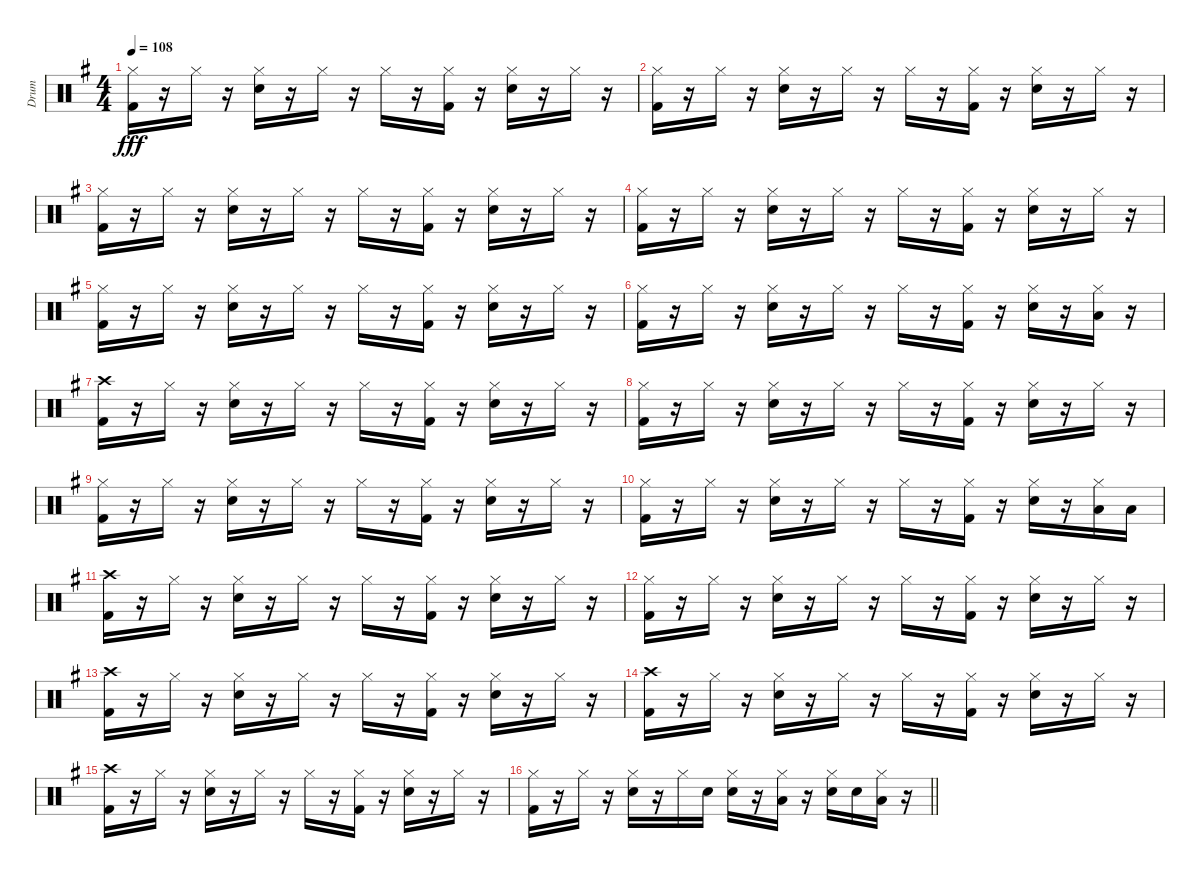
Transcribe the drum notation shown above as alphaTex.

\track ("Drum" "Drum") {instrument percussion}
\staff {score}
\articulation defaults
\ts (4 4)
\tempo 108
\clef neutral
\ks g
("Hi-Hat (closed)" "Kick (hit) 2").16{dy fff} r.16 "Hi-Hat (closed)".16 r.16 ("Hi-Hat (closed)" "Electric Snare (hit)").16 r.16 "Hi-Hat (closed)".16 r.16 "Hi-Hat (closed)".16 r.16 ("Hi-Hat (closed)" "Kick (hit) 2").16 r.16 ("Hi-Hat (closed)" "Electric Snare (hit)").16 r.16 "Hi-Hat (closed)".16 r.16 |
("Hi-Hat (closed)" "Kick (hit) 2").16 r.16 "Hi-Hat (closed)".16 r.16 ("Hi-Hat (closed)" "Electric Snare (hit)").16 r.16 "Hi-Hat (closed)".16 r.16 "Hi-Hat (closed)".16 r.16 ("Hi-Hat (closed)" "Kick (hit) 2").16 r.16 ("Hi-Hat (closed)" "Electric Snare (hit)").16 r.16 "Hi-Hat (closed)".16 r.16 |
("Hi-Hat (closed)" "Kick (hit) 2").16 r.16 "Hi-Hat (closed)".16 r.16 ("Hi-Hat (closed)" "Electric Snare (hit)").16 r.16 "Hi-Hat (closed)".16 r.16 "Hi-Hat (closed)".16 r.16 ("Hi-Hat (closed)" "Kick (hit) 2").16 r.16 ("Hi-Hat (closed)" "Electric Snare (hit)").16 r.16 "Hi-Hat (closed)".16 r.16 |
("Hi-Hat (closed)" "Kick (hit) 2").16 r.16 "Hi-Hat (closed)".16 r.16 ("Hi-Hat (closed)" "Electric Snare (hit)").16 r.16 "Hi-Hat (closed)".16 r.16 "Hi-Hat (closed)".16 r.16 ("Hi-Hat (closed)" "Kick (hit) 2").16 r.16 ("Hi-Hat (closed)" "Electric Snare (hit)").16 r.16 "Hi-Hat (closed)".16 r.16 |
("Hi-Hat (closed)" "Kick (hit) 2").16 r.16 "Hi-Hat (closed)".16 r.16 ("Hi-Hat (closed)" "Electric Snare (hit)").16 r.16 "Hi-Hat (closed)".16 r.16 "Hi-Hat (closed)".16 r.16 ("Hi-Hat (closed)" "Kick (hit) 2").16 r.16 ("Hi-Hat (closed)" "Electric Snare (hit)").16 r.16 "Hi-Hat (closed)".16 r.16 |
("Hi-Hat (closed)" "Kick (hit) 2").16 r.16 "Hi-Hat (closed)".16 r.16 ("Hi-Hat (closed)" "Electric Snare (hit)").16 r.16 "Hi-Hat (closed)".16 r.16 "Hi-Hat (closed)".16 r.16 ("Hi-Hat (closed)" "Kick (hit) 2").16 r.16 ("Hi-Hat (closed)" "Electric Snare (hit)").16 r.16 ("Hi-Hat (closed)" "Low Tom (hit)").16 r.16 |
("Crash high (hit)" "Kick (hit) 2").16 r.16 "Hi-Hat (closed)".16 r.16 ("Hi-Hat (closed)" "Electric Snare (hit)").16 r.16 "Hi-Hat (closed)".16 r.16 "Hi-Hat (closed)".16 r.16 ("Hi-Hat (closed)" "Kick (hit) 2").16 r.16 ("Hi-Hat (closed)" "Electric Snare (hit)").16 r.16 "Hi-Hat (closed)".16 r.16 |
("Hi-Hat (closed)" "Kick (hit) 2").16 r.16 "Hi-Hat (closed)".16 r.16 ("Hi-Hat (closed)" "Electric Snare (hit)").16 r.16 "Hi-Hat (closed)".16 r.16 "Hi-Hat (closed)".16 r.16 ("Hi-Hat (closed)" "Kick (hit) 2").16 r.16 ("Hi-Hat (closed)" "Electric Snare (hit)").16 r.16 "Hi-Hat (closed)".16 r.16 |
("Hi-Hat (closed)" "Kick (hit) 2").16 r.16 "Hi-Hat (closed)".16 r.16 ("Hi-Hat (closed)" "Electric Snare (hit)").16 r.16 "Hi-Hat (closed)".16 r.16 "Hi-Hat (closed)".16 r.16 ("Hi-Hat (closed)" "Kick (hit) 2").16 r.16 ("Hi-Hat (closed)" "Electric Snare (hit)").16 r.16 "Hi-Hat (closed)".16 r.16 |
("Hi-Hat (closed)" "Kick (hit) 2").16 r.16 "Hi-Hat (closed)".16 r.16 ("Hi-Hat (closed)" "Electric Snare (hit)").16 r.16 "Hi-Hat (closed)".16 r.16 "Hi-Hat (closed)".16 r.16 ("Hi-Hat (closed)" "Kick (hit) 2").16 r.16 ("Hi-Hat (closed)" "Electric Snare (hit)").16 r.16 ("Hi-Hat (closed)" "Low Tom (hit)").16 "Low Tom (hit)".16 |
("Crash high (hit)" "Kick (hit) 2").16 r.16 "Hi-Hat (closed)".16 r.16 ("Hi-Hat (closed)" "Electric Snare (hit)").16 r.16 "Hi-Hat (closed)".16 r.16 "Hi-Hat (closed)".16 r.16 ("Hi-Hat (closed)" "Kick (hit) 2").16 r.16 ("Hi-Hat (closed)" "Electric Snare (hit)").16 r.16 "Hi-Hat (closed)".16 r.16 |
("Hi-Hat (closed)" "Kick (hit) 2").16 r.16 "Hi-Hat (closed)".16 r.16 ("Hi-Hat (closed)" "Electric Snare (hit)").16 r.16 "Hi-Hat (closed)".16 r.16 "Hi-Hat (closed)".16 r.16 ("Hi-Hat (closed)" "Kick (hit) 2").16 r.16 ("Hi-Hat (closed)" "Electric Snare (hit)").16 r.16 "Hi-Hat (closed)".16 r.16 |
("Crash high (hit)" "Kick (hit) 2").16 r.16 "Hi-Hat (closed)".16 r.16 ("Hi-Hat (closed)" "Electric Snare (hit)").16 r.16 "Hi-Hat (closed)".16 r.16 "Hi-Hat (closed)".16 r.16 ("Hi-Hat (closed)" "Kick (hit) 2").16 r.16 ("Hi-Hat (closed)" "Electric Snare (hit)").16 r.16 "Hi-Hat (closed)".16 r.16 |
("Crash high (hit)" "Kick (hit) 2").16 r.16 "Hi-Hat (closed)".16 r.16 ("Hi-Hat (closed)" "Electric Snare (hit)").16 r.16 "Hi-Hat (closed)".16 r.16 "Hi-Hat (closed)".16 r.16 ("Hi-Hat (closed)" "Kick (hit) 2").16 r.16 ("Hi-Hat (closed)" "Electric Snare (hit)").16 r.16 "Hi-Hat (closed)".16 r.16 |
("Crash high (hit)" "Kick (hit) 2").16 r.16 "Hi-Hat (closed)".16 r.16 ("Hi-Hat (closed)" "Electric Snare (hit)").16 r.16 "Hi-Hat (closed)".16 r.16 "Hi-Hat (closed)".16 r.16 ("Hi-Hat (closed)" "Kick (hit) 2").16 r.16 ("Hi-Hat (closed)" "Electric Snare (hit)").16 r.16 "Hi-Hat (closed)".16 r.16 |
\barLineRight lightlight
("Hi-Hat (closed)" "Kick (hit) 2").16 r.16 "Hi-Hat (closed)".16 r.16 ("Hi-Hat (closed)" "Electric Snare (hit)").16 r.16 "Hi-Hat (closed)".16 "Electric Snare (hit)".16 ("Hi-Hat (closed)" "Electric Snare (hit)").16 r.16 ("Hi-Hat (closed)" "Low Tom (hit)").16 r.16 ("Hi-Hat (closed)" "Electric Snare (hit)").16 "Electric Snare (hit)".16 ("Hi-Hat (closed)" "Low Tom (hit)").16 r.16
